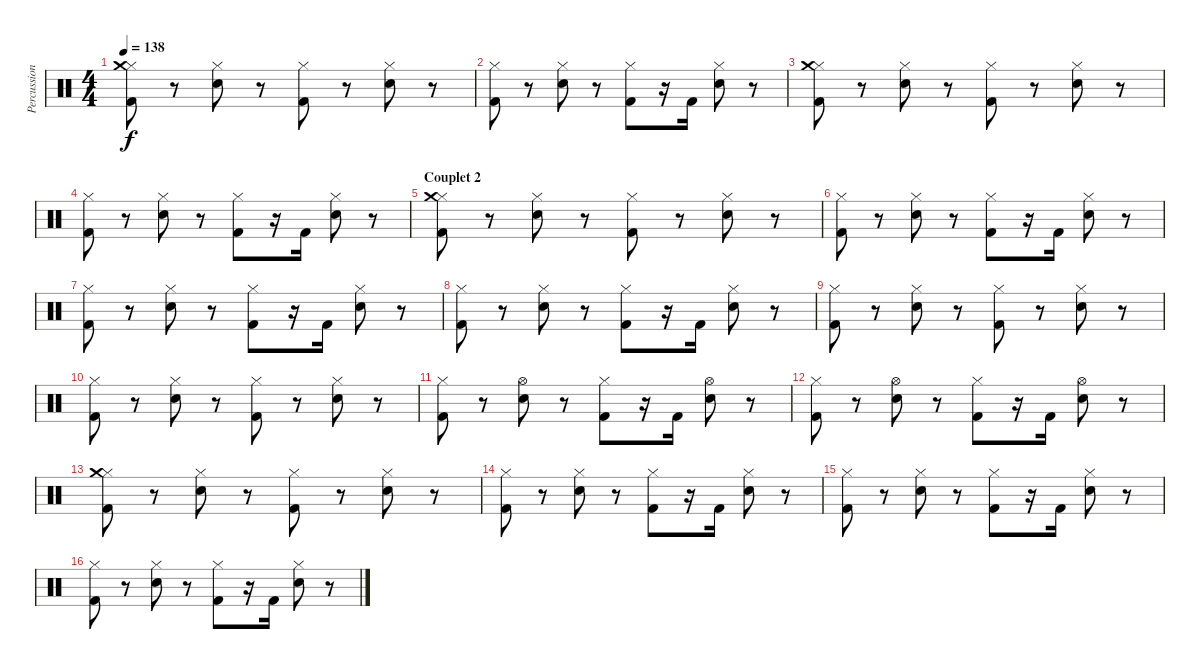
\track ("Percussions" "Percussion") {instrument percussion}
\staff {score}
\articulation defaults
\ts (4 4)
\tempo 138
\clef neutral
\ks c
("Hi-Hat (closed)" "Crash medium (hit)" "Kick (hit) 2").8{dy f} r.8 ("Hi-Hat (closed)" "Electric Snare (hit)").8 r.8 ("Hi-Hat (closed)" "Kick (hit) 2").8 r.8 ("Hi-Hat (closed)" "Electric Snare (hit)").8 r.8 |
("Hi-Hat (closed)" "Kick (hit) 2").8 r.8 ("Hi-Hat (closed)" "Electric Snare (hit)").8 r.8 ("Hi-Hat (closed)" "Kick (hit) 2").8 r.16 "Kick (hit) 2".16 ("Hi-Hat (closed)" "Electric Snare (hit)").8 r.8 |
("Hi-Hat (closed)" "Crash medium (hit)" "Kick (hit) 2").8 r.8 ("Hi-Hat (closed)" "Electric Snare (hit)").8 r.8 ("Hi-Hat (closed)" "Kick (hit) 2").8 r.8 ("Hi-Hat (closed)" "Electric Snare (hit)").8 r.8 |
("Hi-Hat (closed)" "Kick (hit) 2").8 r.8 ("Hi-Hat (closed)" "Electric Snare (hit)").8 r.8 ("Hi-Hat (closed)" "Kick (hit) 2").8 r.16 "Kick (hit) 2".16 ("Hi-Hat (closed)" "Electric Snare (hit)").8 r.8 |
\section ("" "Couplet 2")
("Hi-Hat (closed)" "Crash medium (hit)" "Kick (hit) 2").8 r.8 ("Hi-Hat (closed)" "Electric Snare (hit)").8 r.8 ("Hi-Hat (closed)" "Kick (hit) 2").8 r.8 ("Hi-Hat (closed)" "Electric Snare (hit)").8 r.8 |
("Hi-Hat (closed)" "Kick (hit) 2").8 r.8 ("Hi-Hat (closed)" "Electric Snare (hit)").8 r.8 ("Hi-Hat (closed)" "Kick (hit) 2").8 r.16 "Kick (hit) 2".16 ("Hi-Hat (closed)" "Electric Snare (hit)").8 r.8 |
("Hi-Hat (closed)" "Kick (hit) 2").8 r.8 ("Hi-Hat (closed)" "Electric Snare (hit)").8 r.8 ("Hi-Hat (closed)" "Kick (hit) 2").8 r.16 "Kick (hit) 2".16 ("Hi-Hat (closed)" "Electric Snare (hit)").8 r.8 |
("Hi-Hat (closed)" "Kick (hit) 2").8 r.8 ("Hi-Hat (closed)" "Electric Snare (hit)").8 r.8 ("Hi-Hat (closed)" "Kick (hit) 2").8 r.16 "Kick (hit) 2".16 ("Hi-Hat (closed)" "Electric Snare (hit)").8 r.8 |
("Hi-Hat (closed)" "Kick (hit) 2").8 r.8 ("Hi-Hat (closed)" "Electric Snare (hit)").8 r.8 ("Hi-Hat (closed)" "Kick (hit) 2").8 r.8 ("Hi-Hat (closed)" "Electric Snare (hit)").8 r.8 |
("Hi-Hat (closed)" "Kick (hit) 2").8 r.8 ("Hi-Hat (closed)" "Electric Snare (hit)").8 r.8 ("Hi-Hat (closed)" "Kick (hit) 2").8 r.8 ("Hi-Hat (closed)" "Electric Snare (hit)").8 r.8 |
("Hi-Hat (closed)" "Kick (hit) 2").8 r.8 ("Hi-Hat (open)" "Electric Snare (hit)").8 r.8 ("Hi-Hat (closed)" "Kick (hit) 2").8 r.16 "Kick (hit) 2".16 ("Hi-Hat (open)" "Electric Snare (hit)").8 r.8 |
("Hi-Hat (closed)" "Kick (hit) 2").8 r.8 ("Hi-Hat (open)" "Electric Snare (hit)").8 r.8 ("Hi-Hat (closed)" "Kick (hit) 2").8 r.16 "Kick (hit) 2".16 ("Hi-Hat (open)" "Electric Snare (hit)").8 r.8 |
("Hi-Hat (closed)" "Crash medium (hit)" "Kick (hit) 2").8 r.8 ("Hi-Hat (closed)" "Electric Snare (hit)").8 r.8 ("Hi-Hat (closed)" "Kick (hit) 2").8 r.8 ("Hi-Hat (closed)" "Electric Snare (hit)").8 r.8 |
("Hi-Hat (closed)" "Kick (hit) 2").8 r.8 ("Hi-Hat (closed)" "Electric Snare (hit)").8 r.8 ("Hi-Hat (closed)" "Kick (hit) 2").8 r.16 "Kick (hit) 2".16 ("Hi-Hat (closed)" "Electric Snare (hit)").8 r.8 |
("Hi-Hat (closed)" "Kick (hit) 2").8 r.8 ("Hi-Hat (closed)" "Electric Snare (hit)").8 r.8 ("Hi-Hat (closed)" "Kick (hit) 2").8 r.16 "Kick (hit) 2".16 ("Hi-Hat (closed)" "Electric Snare (hit)").8 r.8 |
("Hi-Hat (closed)" "Kick (hit) 2").8 r.8 ("Hi-Hat (closed)" "Electric Snare (hit)").8 r.8 ("Hi-Hat (closed)" "Kick (hit) 2").8 r.16 "Kick (hit) 2".16 ("Hi-Hat (closed)" "Electric Snare (hit)").8 r.8
